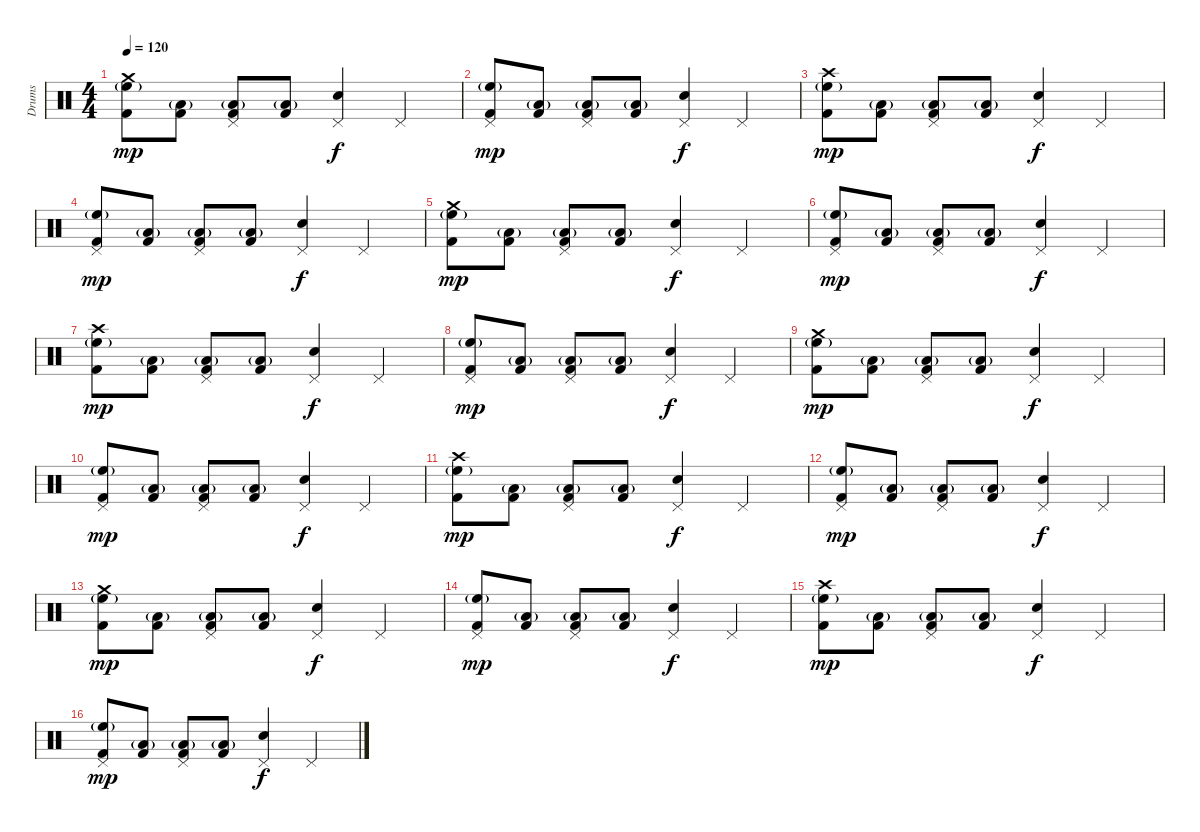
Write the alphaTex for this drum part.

\track ("Drums" "Drums") {instrument percussion}
\staff {score}
\articulation defaults
\ts (4 4)
\tempo 120
\clef neutral
\ks c
("Crash medium (hit)" "High Floor Tom (hit)"{g} "Kick (hit) 2").8{dy mp} ("Low Tom (hit)"{g} "Kick (hit) 2").8 ("Pedal Hi-Hat (hit)" "Low Tom (hit)"{g} "Kick (hit) 2").8 ("Low Tom (hit)"{g} "Kick (hit) 2").8 ("Pedal Hi-Hat (hit)" "Electric Snare (hit)").4{dy f} "Pedal Hi-Hat (hit)".4 |
("Pedal Hi-Hat (hit)" "High Floor Tom (hit)"{g} "Kick (hit) 2").8{dy mp} ("Low Tom (hit)"{g} "Kick (hit) 2").8 ("Pedal Hi-Hat (hit)" "Low Tom (hit)"{g} "Kick (hit) 2").8 ("Low Tom (hit)"{g} "Kick (hit) 2").8 ("Pedal Hi-Hat (hit)" "Electric Snare (hit)").4{dy f} "Pedal Hi-Hat (hit)".4 |
("Crash high (hit)" "High Floor Tom (hit)"{g} "Kick (hit) 2").8{dy mp} ("Low Tom (hit)"{g} "Kick (hit) 2").8 ("Pedal Hi-Hat (hit)" "Low Tom (hit)"{g} "Kick (hit) 2").8 ("Low Tom (hit)"{g} "Kick (hit) 2").8 ("Pedal Hi-Hat (hit)" "Electric Snare (hit)").4{dy f} "Pedal Hi-Hat (hit)".4 |
("Pedal Hi-Hat (hit)" "High Floor Tom (hit)"{g} "Kick (hit) 2").8{dy mp} ("Low Tom (hit)"{g} "Kick (hit) 2").8 ("Pedal Hi-Hat (hit)" "Low Tom (hit)"{g} "Kick (hit) 2").8 ("Low Tom (hit)"{g} "Kick (hit) 2").8 ("Pedal Hi-Hat (hit)" "Electric Snare (hit)").4{dy f} "Pedal Hi-Hat (hit)".4 |
("Crash medium (hit)" "High Floor Tom (hit)"{g} "Kick (hit) 2").8{dy mp} ("Low Tom (hit)"{g} "Kick (hit) 2").8 ("Pedal Hi-Hat (hit)" "Low Tom (hit)"{g} "Kick (hit) 2").8 ("Low Tom (hit)"{g} "Kick (hit) 2").8 ("Pedal Hi-Hat (hit)" "Electric Snare (hit)").4{dy f} "Pedal Hi-Hat (hit)".4 |
("Pedal Hi-Hat (hit)" "High Floor Tom (hit)"{g} "Kick (hit) 2").8{dy mp} ("Low Tom (hit)"{g} "Kick (hit) 2").8 ("Pedal Hi-Hat (hit)" "Low Tom (hit)"{g} "Kick (hit) 2").8 ("Low Tom (hit)"{g} "Kick (hit) 2").8 ("Pedal Hi-Hat (hit)" "Electric Snare (hit)").4{dy f} "Pedal Hi-Hat (hit)".4 |
("Crash high (hit)" "High Floor Tom (hit)"{g} "Kick (hit) 2").8{dy mp} ("Low Tom (hit)"{g} "Kick (hit) 2").8 ("Pedal Hi-Hat (hit)" "Low Tom (hit)"{g} "Kick (hit) 2").8 ("Low Tom (hit)"{g} "Kick (hit) 2").8 ("Pedal Hi-Hat (hit)" "Electric Snare (hit)").4{dy f} "Pedal Hi-Hat (hit)".4 |
("Pedal Hi-Hat (hit)" "High Floor Tom (hit)"{g} "Kick (hit) 2").8{dy mp} ("Low Tom (hit)"{g} "Kick (hit) 2").8 ("Pedal Hi-Hat (hit)" "Low Tom (hit)"{g} "Kick (hit) 2").8 ("Low Tom (hit)"{g} "Kick (hit) 2").8 ("Pedal Hi-Hat (hit)" "Electric Snare (hit)").4{dy f} "Pedal Hi-Hat (hit)".4 |
("Crash medium (hit)" "High Floor Tom (hit)"{g} "Kick (hit) 2").8{dy mp} ("Low Tom (hit)"{g} "Kick (hit) 2").8 ("Pedal Hi-Hat (hit)" "Low Tom (hit)"{g} "Kick (hit) 2").8 ("Low Tom (hit)"{g} "Kick (hit) 2").8 ("Pedal Hi-Hat (hit)" "Electric Snare (hit)").4{dy f} "Pedal Hi-Hat (hit)".4 |
("Pedal Hi-Hat (hit)" "High Floor Tom (hit)"{g} "Kick (hit) 2").8{dy mp} ("Low Tom (hit)"{g} "Kick (hit) 2").8 ("Pedal Hi-Hat (hit)" "Low Tom (hit)"{g} "Kick (hit) 2").8 ("Low Tom (hit)"{g} "Kick (hit) 2").8 ("Pedal Hi-Hat (hit)" "Electric Snare (hit)").4{dy f} "Pedal Hi-Hat (hit)".4 |
("Crash high (hit)" "High Floor Tom (hit)"{g} "Kick (hit) 2").8{dy mp} ("Low Tom (hit)"{g} "Kick (hit) 2").8 ("Pedal Hi-Hat (hit)" "Low Tom (hit)"{g} "Kick (hit) 2").8 ("Low Tom (hit)"{g} "Kick (hit) 2").8 ("Pedal Hi-Hat (hit)" "Electric Snare (hit)").4{dy f} "Pedal Hi-Hat (hit)".4 |
("Pedal Hi-Hat (hit)" "High Floor Tom (hit)"{g} "Kick (hit) 2").8{dy mp} ("Low Tom (hit)"{g} "Kick (hit) 2").8 ("Pedal Hi-Hat (hit)" "Low Tom (hit)"{g} "Kick (hit) 2").8 ("Low Tom (hit)"{g} "Kick (hit) 2").8 ("Pedal Hi-Hat (hit)" "Electric Snare (hit)").4{dy f} "Pedal Hi-Hat (hit)".4 |
("Crash medium (hit)" "High Floor Tom (hit)"{g} "Kick (hit) 2").8{dy mp} ("Low Tom (hit)"{g} "Kick (hit) 2").8 ("Pedal Hi-Hat (hit)" "Low Tom (hit)"{g} "Kick (hit) 2").8 ("Low Tom (hit)"{g} "Kick (hit) 2").8 ("Pedal Hi-Hat (hit)" "Electric Snare (hit)").4{dy f} "Pedal Hi-Hat (hit)".4 |
("Pedal Hi-Hat (hit)" "High Floor Tom (hit)"{g} "Kick (hit) 2").8{dy mp} ("Low Tom (hit)"{g} "Kick (hit) 2").8 ("Pedal Hi-Hat (hit)" "Low Tom (hit)"{g} "Kick (hit) 2").8 ("Low Tom (hit)"{g} "Kick (hit) 2").8 ("Pedal Hi-Hat (hit)" "Electric Snare (hit)").4{dy f} "Pedal Hi-Hat (hit)".4 |
("Crash high (hit)" "High Floor Tom (hit)"{g} "Kick (hit) 2").8{dy mp} ("Low Tom (hit)"{g} "Kick (hit) 2").8 ("Pedal Hi-Hat (hit)" "Low Tom (hit)"{g} "Kick (hit) 2").8 ("Low Tom (hit)"{g} "Kick (hit) 2").8 ("Pedal Hi-Hat (hit)" "Electric Snare (hit)").4{dy f} "Pedal Hi-Hat (hit)".4 |
("Pedal Hi-Hat (hit)" "High Floor Tom (hit)"{g} "Kick (hit) 2").8{dy mp} ("Low Tom (hit)"{g} "Kick (hit) 2").8 ("Pedal Hi-Hat (hit)" "Low Tom (hit)"{g} "Kick (hit) 2").8 ("Low Tom (hit)"{g} "Kick (hit) 2").8 ("Pedal Hi-Hat (hit)" "Electric Snare (hit)").4{dy f} "Pedal Hi-Hat (hit)".4
